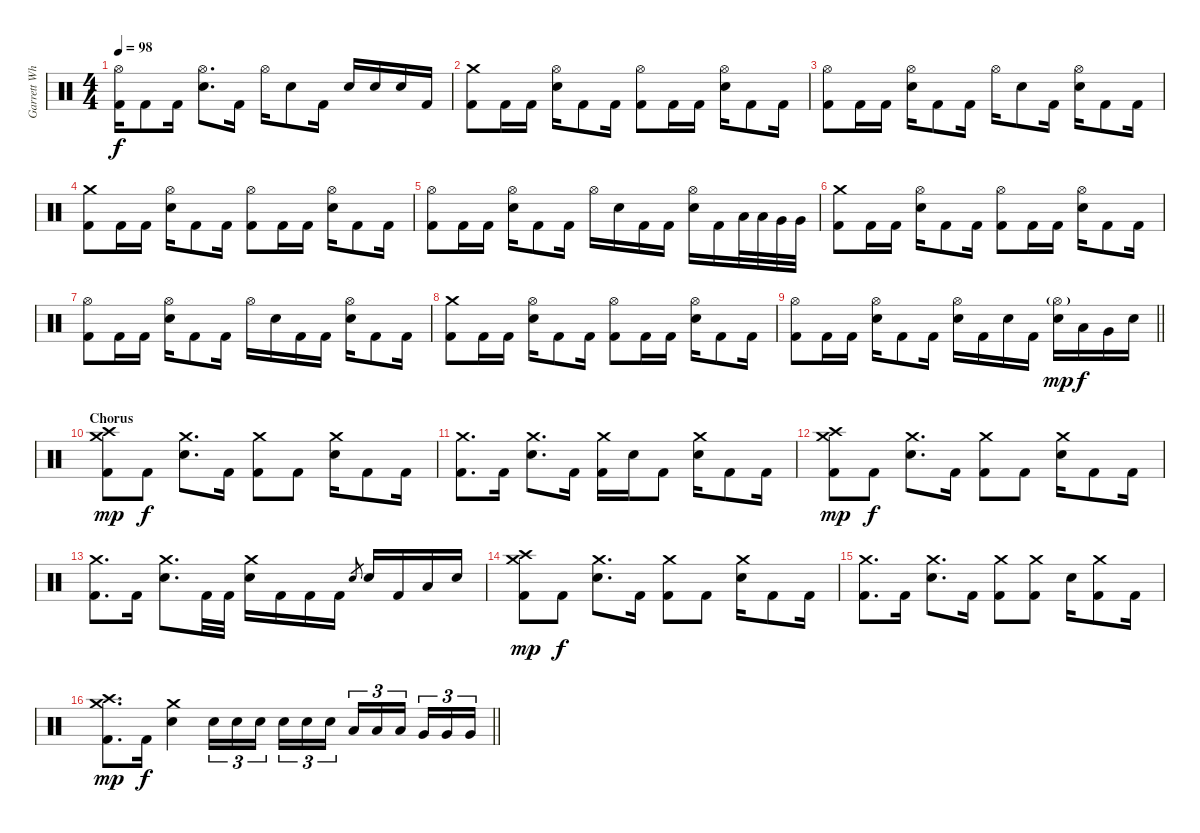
\track ("Garrett Whitlock" "Garrett Wh") {instrument percussion}
\staff {score}
\articulation defaults
\ts (4 4)
\tempo 98
\clef neutral
\ks c
("Hi-Hat (open)" "Kick (hit) 2").16{dy f} "Kick (hit) 2".8 "Kick (hit) 2".16 ("Hi-Hat (open)" "Electric Snare (hit)").8{d} "Kick (hit) 2".16 "Hi-Hat (open)".16 "Electric Snare (hit)".8 "Kick (hit) 2".16 "Electric Snare (hit)".16 "Electric Snare (hit)".16 "Electric Snare (hit)".16 "Kick (hit) 2".16 |
("Crash medium (hit)" "Kick (hit) 2").8 "Kick (hit) 2".16 "Kick (hit) 2".16 ("Hi-Hat (open)" "Electric Snare (hit)").16 "Kick (hit) 2".8 "Kick (hit) 2".16 ("Hi-Hat (open)" "Kick (hit) 2").8 "Kick (hit) 2".16 "Kick (hit) 2".16 ("Hi-Hat (open)" "Electric Snare (hit)").16 "Kick (hit) 2".8 "Kick (hit) 2".16 |
("Hi-Hat (open)" "Kick (hit) 2").8 "Kick (hit) 2".16 "Kick (hit) 2".16 ("Hi-Hat (open)" "Electric Snare (hit)").16 "Kick (hit) 2".8 "Kick (hit) 2".16 "Hi-Hat (open)".16 "Electric Snare (hit)".8 "Kick (hit) 2".16 ("Hi-Hat (open)" "Electric Snare (hit)").16 "Kick (hit) 2".8 "Kick (hit) 2".16 |
("Crash medium (hit)" "Kick (hit) 2").8 "Kick (hit) 2".16 "Kick (hit) 2".16 ("Hi-Hat (open)" "Electric Snare (hit)").16 "Kick (hit) 2".8 "Kick (hit) 2".16 ("Hi-Hat (open)" "Kick (hit) 2").8 "Kick (hit) 2".16 "Kick (hit) 2".16 ("Hi-Hat (open)" "Electric Snare (hit)").16 "Kick (hit) 2".8 "Kick (hit) 2".16 |
("Hi-Hat (open)" "Kick (hit) 2").8 "Kick (hit) 2".16 "Kick (hit) 2".16 ("Hi-Hat (open)" "Electric Snare (hit)").16 "Kick (hit) 2".8 "Kick (hit) 2".16 "Hi-Hat (open)".16 "Electric Snare (hit)".16 "Kick (hit) 2".16 "Kick (hit) 2".16 ("Hi-Hat (open)" "Electric Snare (hit)").16 "Kick (hit) 2".16 "Low Tom (hit)".32 "Low Tom (hit)".32 "Very Low Tom (hit)".32 "Very Low Tom (hit)".32 |
("Crash medium (hit)" "Kick (hit) 2").8 "Kick (hit) 2".16 "Kick (hit) 2".16 ("Hi-Hat (open)" "Electric Snare (hit)").16 "Kick (hit) 2".8 "Kick (hit) 2".16 ("Hi-Hat (open)" "Kick (hit) 2").8 "Kick (hit) 2".16 "Kick (hit) 2".16 ("Hi-Hat (open)" "Electric Snare (hit)").16 "Kick (hit) 2".8 "Kick (hit) 2".16 |
("Hi-Hat (open)" "Kick (hit) 2").8 "Kick (hit) 2".16 "Kick (hit) 2".16 ("Hi-Hat (open)" "Electric Snare (hit)").16 "Kick (hit) 2".8 "Kick (hit) 2".16 "Hi-Hat (open)".16 "Electric Snare (hit)".16 "Kick (hit) 2".16 "Kick (hit) 2".16 ("Hi-Hat (open)" "Electric Snare (hit)").16 "Kick (hit) 2".8 "Kick (hit) 2".16 |
("Crash medium (hit)" "Kick (hit) 2").8 "Kick (hit) 2".16 "Kick (hit) 2".16 ("Hi-Hat (open)" "Electric Snare (hit)").16 "Kick (hit) 2".8 "Kick (hit) 2".16 ("Hi-Hat (open)" "Kick (hit) 2").8 "Kick (hit) 2".16 "Kick (hit) 2".16 ("Hi-Hat (open)" "Electric Snare (hit)").16 "Kick (hit) 2".8 "Kick (hit) 2".16 |
\barLineRight lightlight
("Hi-Hat (open)" "Kick (hit) 2").8 "Kick (hit) 2".16 "Kick (hit) 2".16 ("Hi-Hat (open)" "Electric Snare (hit)").16 "Kick (hit) 2".8 "Kick (hit) 2".16 ("Hi-Hat (open)" "Electric Snare (hit)").16 "Kick (hit) 2".16 "Electric Snare (hit)".16 "Kick (hit) 2".16 ("Hi-Hat (open)"{g} "Electric Snare (hit)").16{dy mp} "Low Tom (hit)".16{dy f} "Very Low Tom (hit)".16 "Electric Snare (hit)".16 |
\section ("" "Chorus")
("Crash high (hit)" "Crash medium (hit)" "Kick (hit) 2").8{dy mp} "Kick (hit) 2".8{dy f} ("Crash medium (hit)" "Electric Snare (hit)").8{d} "Kick (hit) 2".16 ("Crash medium (hit)" "Kick (hit) 2").8 "Kick (hit) 2".8 ("Crash medium (hit)" "Electric Snare (hit)").16 "Kick (hit) 2".8 "Kick (hit) 2".16 |
("Crash medium (hit)" "Kick (hit) 2").8{d} "Kick (hit) 2".16 ("Crash medium (hit)" "Electric Snare (hit)").8{d} "Kick (hit) 2".16 ("Crash medium (hit)" "Kick (hit) 2").16 "Electric Snare (hit)".16 "Kick (hit) 2".8 ("Crash medium (hit)" "Electric Snare (hit)").16 "Kick (hit) 2".8 "Kick (hit) 2".16 |
("Crash high (hit)" "Crash medium (hit)" "Kick (hit) 2").8{dy mp} "Kick (hit) 2".8{dy f} ("Crash medium (hit)" "Electric Snare (hit)").8{d} "Kick (hit) 2".16 ("Crash medium (hit)" "Kick (hit) 2").8 "Kick (hit) 2".8 ("Crash medium (hit)" "Electric Snare (hit)").16 "Kick (hit) 2".8 "Kick (hit) 2".16 |
("Crash medium (hit)" "Kick (hit) 2").8{d} "Kick (hit) 2".16 ("Crash medium (hit)" "Electric Snare (hit)").8{d} "Kick (hit) 2".32 "Kick (hit) 2".32 ("Crash medium (hit)" "Electric Snare (hit)").16 "Kick (hit) 2".16 "Kick (hit) 2".16 "Kick (hit) 2".16 "Electric Snare (hit)".8{gr} "Electric Snare (hit)".16 "Kick (hit) 2".16 "Low Tom (hit)".16 "Electric Snare (hit)".16 |
("Crash high (hit)" "Crash medium (hit)" "Kick (hit) 2").8{dy mp} "Kick (hit) 2".8{dy f} ("Crash medium (hit)" "Electric Snare (hit)").8{d} "Kick (hit) 2".16 ("Crash medium (hit)" "Kick (hit) 2").8 "Kick (hit) 2".8 ("Crash medium (hit)" "Electric Snare (hit)").16 "Kick (hit) 2".8 "Kick (hit) 2".16 |
("Crash medium (hit)" "Kick (hit) 2").8{d} "Kick (hit) 2".16 ("Crash medium (hit)" "Electric Snare (hit)").8{d} "Kick (hit) 2".16 ("Crash medium (hit)" "Kick (hit) 2").8 ("Crash medium (hit)" "Kick (hit) 2").8 "Electric Snare (hit)".16 ("Crash medium (hit)" "Kick (hit) 2").8 "Kick (hit) 2".16 |
\barLineRight lightlight
("Crash medium (hit)" "Crash high (hit)" "Kick (hit) 2").8{d dy mp} "Kick (hit) 2".16{dy f} ("Crash medium (hit)" "Electric Snare (hit)").4 "Electric Snare (hit)".16{tu (3 2)} "Electric Snare (hit)".16{tu (3 2)} "Electric Snare (hit)".16{tu (3 2) beam splitsecondary} "Electric Snare (hit)".16{tu (3 2)} "Electric Snare (hit)".16{tu (3 2)} "Electric Snare (hit)".16{tu (3 2)} "Low Tom (hit)".16{tu (3 2)} "Low Tom (hit)".16{tu (3 2)} "Low Tom (hit)".16{tu (3 2) beam splitsecondary} "Very Low Tom (hit)".16{tu (3 2)} "Very Low Tom (hit)".16{tu (3 2)} "Very Low Tom (hit)".16{tu (3 2)}
